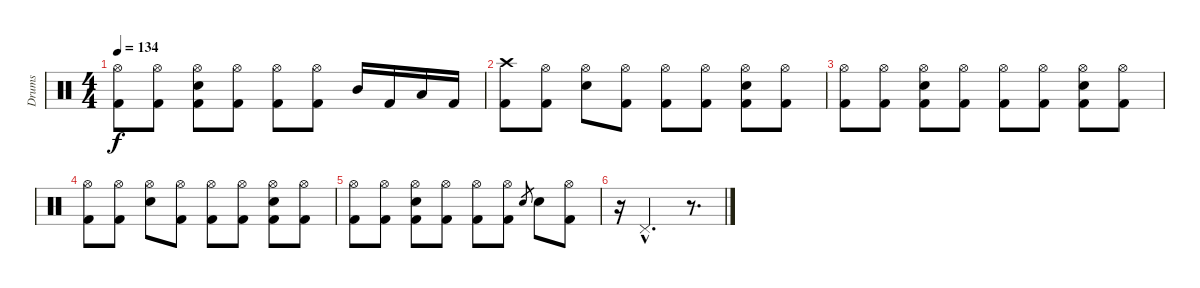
\track ("Drums" "Drums") {instrument percussion}
\staff {score}
\articulation defaults
\ts (4 4)
\tempo 134
\clef neutral
\ks c
("Hi-Hat (open)" "Kick (hit) 2").8{dy f} ("Hi-Hat (open)" "Kick (hit) 2").8 ("Hi-Hat (open)" "Electric Snare (hit)" "Kick (hit) 2").8 ("Hi-Hat (open)" "Kick (hit) 2").8 ("Hi-Hat (open)" "Kick (hit) 2").8 ("Hi-Hat (open)" "Kick (hit) 2").8 "Mid Tom (hit)".16 "Kick (hit) 2".16 "Low Tom (hit)".16 "Kick (hit) 2".16 |
("Crash high (hit)" "Kick (hit) 2").8 ("Hi-Hat (open)" "Kick (hit) 2").8 ("Hi-Hat (open)" "Electric Snare (hit)").8 ("Hi-Hat (open)" "Kick (hit) 2").8 ("Hi-Hat (open)" "Kick (hit) 2").8 ("Hi-Hat (open)" "Kick (hit) 2").8 ("Hi-Hat (open)" "Electric Snare (hit)" "Kick (hit) 2").8 ("Hi-Hat (open)" "Kick (hit) 2").8 |
("Hi-Hat (open)" "Kick (hit) 2").8 ("Hi-Hat (open)" "Kick (hit) 2").8 ("Hi-Hat (open)" "Electric Snare (hit)" "Kick (hit) 2").8 ("Hi-Hat (open)" "Kick (hit) 2").8 ("Hi-Hat (open)" "Kick (hit) 2").8 ("Hi-Hat (open)" "Kick (hit) 2").8 ("Hi-Hat (open)" "Electric Snare (hit)" "Kick (hit) 2").8 ("Hi-Hat (open)" "Kick (hit) 2").8 |
("Hi-Hat (open)" "Kick (hit) 2").8 ("Hi-Hat (open)" "Kick (hit) 2").8 ("Hi-Hat (open)" "Electric Snare (hit)").8 ("Hi-Hat (open)" "Kick (hit) 2").8 ("Hi-Hat (open)" "Kick (hit) 2").8 ("Hi-Hat (open)" "Kick (hit) 2").8 ("Hi-Hat (open)" "Electric Snare (hit)" "Kick (hit) 2").8 ("Hi-Hat (open)" "Kick (hit) 2").8 |
("Hi-Hat (open)" "Kick (hit) 2").8 ("Hi-Hat (open)" "Kick (hit) 2").8 ("Hi-Hat (open)" "Electric Snare (hit)" "Kick (hit) 2").8 ("Hi-Hat (open)" "Kick (hit) 2").8 ("Hi-Hat (open)" "Kick (hit) 2").8 ("Hi-Hat (open)" "Kick (hit) 2").8 "Electric Snare (hit)".8{gr} "Electric Snare (hit)".8 ("Hi-Hat (open)" "Kick (hit) 2").8 |
r.16 "Pedal Hi-Hat (hit)"{hac}.2{d} r.8{d}
